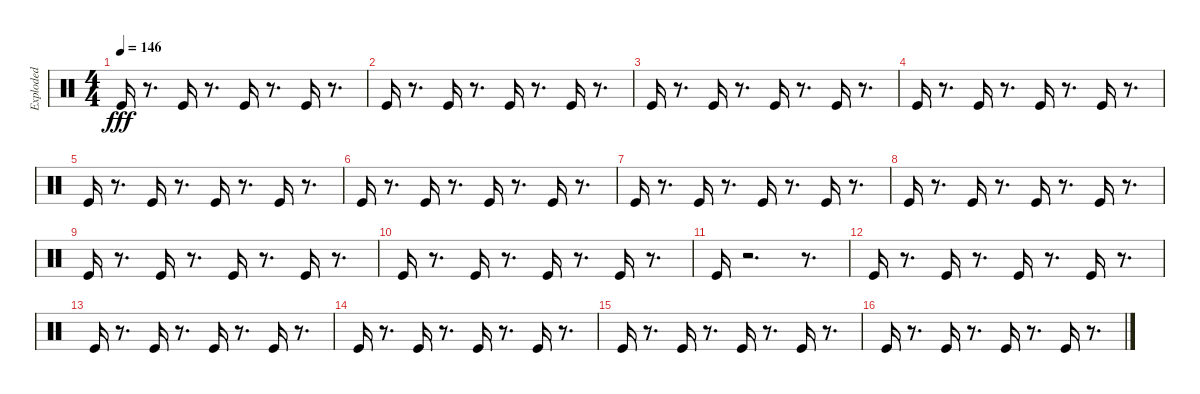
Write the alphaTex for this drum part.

\track ("Exploded" "Exploded") {instrument percussion}
\staff {score}
\articulation defaults
\ts (4 4)
\tempo 146
\clef neutral
\ks c "Kick (hit)".16{dy fff}
r.8{d} "Kick (hit)".16 r.8{d} "Kick (hit)".16 r.8{d} "Kick (hit)".16 r.8{d} |
"Kick (hit)".16 r.8{d} "Kick (hit)".16 r.8{d} "Kick (hit)".16 r.8{d} "Kick (hit)".16 r.8{d} |
"Kick (hit)".16 r.8{d} "Kick (hit)".16 r.8{d} "Kick (hit)".16 r.8{d} "Kick (hit)".16 r.8{d} |
"Kick (hit)".16 r.8{d} "Kick (hit)".16 r.8{d} "Kick (hit)".16 r.8{d} "Kick (hit)".16 r.8{d} |
"Kick (hit)".16 r.8{d} "Kick (hit)".16 r.8{d} "Kick (hit)".16 r.8{d} "Kick (hit)".16 r.8{d} |
"Kick (hit)".16 r.8{d} "Kick (hit)".16 r.8{d} "Kick (hit)".16 r.8{d} "Kick (hit)".16 r.8{d} |
"Kick (hit)".16 r.8{d} "Kick (hit)".16 r.8{d} "Kick (hit)".16 r.8{d} "Kick (hit)".16 r.8{d} |
"Kick (hit)".16 r.8{d} "Kick (hit)".16 r.8{d} "Kick (hit)".16 r.8{d} "Kick (hit)".16 r.8{d} |
"Kick (hit)".16 r.8{d} "Kick (hit)".16 r.8{d} "Kick (hit)".16 r.8{d} "Kick (hit)".16 r.8{d} |
"Kick (hit)".16 r.8{d} "Kick (hit)".16 r.8{d} "Kick (hit)".16 r.8{d} "Kick (hit)".16 r.8{d} |
"Kick (hit)".16 r.2{d} r.8{d} |
"Kick (hit)".16 r.8{d} "Kick (hit)".16 r.8{d} "Kick (hit)".16 r.8{d} "Kick (hit)".16 r.8{d} |
"Kick (hit)".16 r.8{d} "Kick (hit)".16 r.8{d} "Kick (hit)".16 r.8{d} "Kick (hit)".16 r.8{d} |
"Kick (hit)".16 r.8{d} "Kick (hit)".16 r.8{d} "Kick (hit)".16 r.8{d} "Kick (hit)".16 r.8{d} |
"Kick (hit)".16 r.8{d} "Kick (hit)".16 r.8{d} "Kick (hit)".16 r.8{d} "Kick (hit)".16 r.8{d} |
"Kick (hit)".16 r.8{d} "Kick (hit)".16 r.8{d} "Kick (hit)".16 r.8{d} "Kick (hit)".16 r.8{d}
